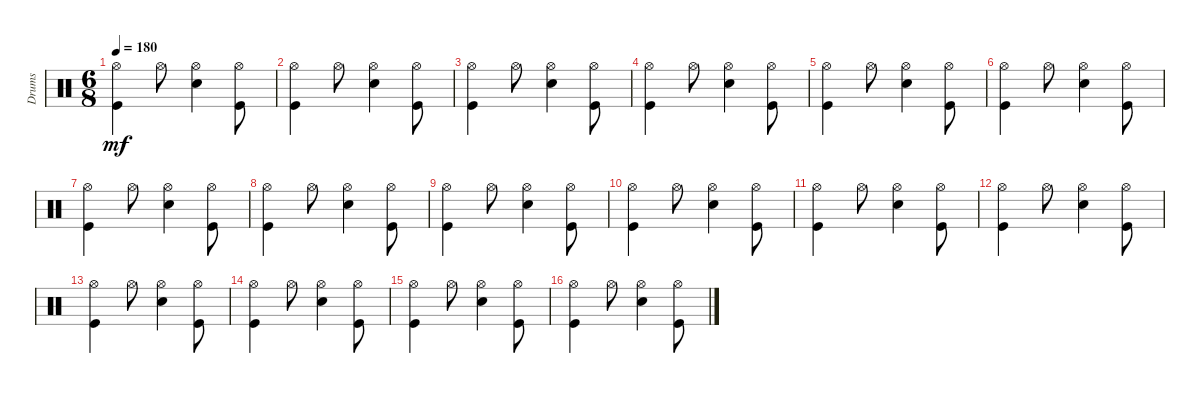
\track ("Drums" "Drums") {instrument percussion}
\staff {score}
\articulation defaults
\ts (6 8)
\tempo 180
\clef neutral
\ks c
("Hi-Hat (open)" "Kick (hit)").4{dy mf} "Hi-Hat (open)".8 ("Hi-Hat (open)" "Electric Snare (hit)").4 ("Hi-Hat (open)" "Kick (hit)").8 |
("Hi-Hat (open)" "Kick (hit)").4 "Hi-Hat (open)".8 ("Hi-Hat (open)" "Electric Snare (hit)").4 ("Hi-Hat (open)" "Kick (hit)").8 |
("Hi-Hat (open)" "Kick (hit)").4 "Hi-Hat (open)".8 ("Hi-Hat (open)" "Electric Snare (hit)").4 ("Hi-Hat (open)" "Kick (hit)").8 |
("Hi-Hat (open)" "Kick (hit)").4 "Hi-Hat (open)".8 ("Hi-Hat (open)" "Electric Snare (hit)").4 ("Hi-Hat (open)" "Kick (hit)").8 |
("Hi-Hat (open)" "Kick (hit)").4 "Hi-Hat (open)".8 ("Hi-Hat (open)" "Electric Snare (hit)").4 ("Hi-Hat (open)" "Kick (hit)").8 |
("Hi-Hat (open)" "Kick (hit)").4 "Hi-Hat (open)".8 ("Hi-Hat (open)" "Electric Snare (hit)").4 ("Hi-Hat (open)" "Kick (hit)").8 |
("Hi-Hat (open)" "Kick (hit)").4{volume 8} "Hi-Hat (open)".8 ("Hi-Hat (open)" "Electric Snare (hit)").4 ("Hi-Hat (open)" "Kick (hit)").8 |
("Hi-Hat (open)" "Kick (hit)").4 "Hi-Hat (open)".8 ("Hi-Hat (open)" "Electric Snare (hit)").4 ("Hi-Hat (open)" "Kick (hit)").8 |
("Hi-Hat (open)" "Kick (hit)").4 "Hi-Hat (open)".8 ("Hi-Hat (open)" "Electric Snare (hit)").4 ("Hi-Hat (open)" "Kick (hit)").8 |
("Hi-Hat (open)" "Kick (hit)").4 "Hi-Hat (open)".8 ("Hi-Hat (open)" "Electric Snare (hit)").4 ("Hi-Hat (open)" "Kick (hit)").8 |
("Hi-Hat (open)" "Kick (hit)").4{volume 5} "Hi-Hat (open)".8 ("Hi-Hat (open)" "Electric Snare (hit)").4 ("Hi-Hat (open)" "Kick (hit)").8 |
("Hi-Hat (open)" "Kick (hit)").4 "Hi-Hat (open)".8 ("Hi-Hat (open)" "Electric Snare (hit)").4 ("Hi-Hat (open)" "Kick (hit)").8 |
("Hi-Hat (open)" "Kick (hit)").4 "Hi-Hat (open)".8 ("Hi-Hat (open)" "Electric Snare (hit)").4 ("Hi-Hat (open)" "Kick (hit)").8 |
("Hi-Hat (open)" "Kick (hit)").4 "Hi-Hat (open)".8 ("Hi-Hat (open)" "Electric Snare (hit)").4 ("Hi-Hat (open)" "Kick (hit)").8 |
("Hi-Hat (open)" "Kick (hit)").4{volume 3} "Hi-Hat (open)".8 ("Hi-Hat (open)" "Electric Snare (hit)").4 ("Hi-Hat (open)" "Kick (hit)").8 |
("Hi-Hat (open)" "Kick (hit)").4 "Hi-Hat (open)".8 ("Hi-Hat (open)" "Electric Snare (hit)").4 ("Hi-Hat (open)" "Kick (hit)").8
